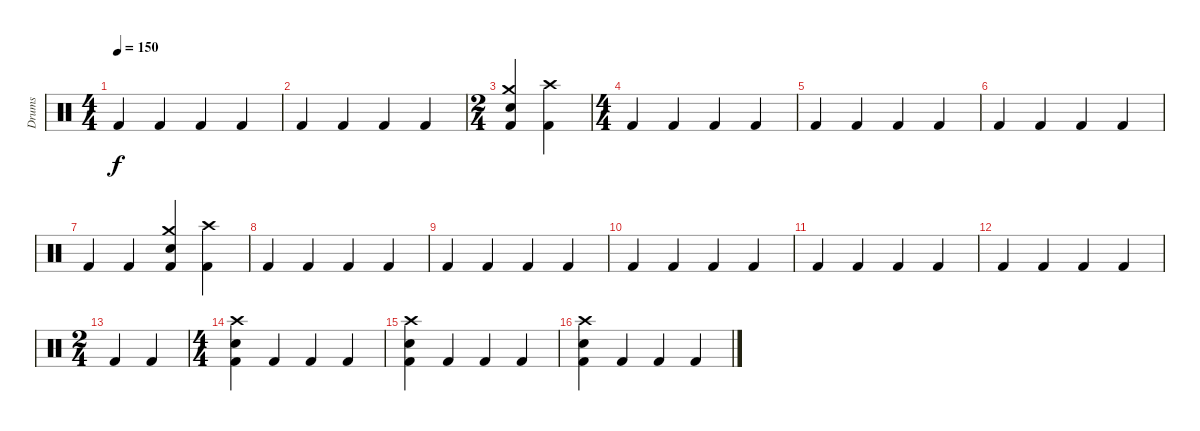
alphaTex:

\track ("Drums" "Drums") {instrument percussion}
\staff {score}
\articulation defaults
\ts (4 4)
\tempo 150
\clef neutral
\ks c "Kick (hit) 2".4{dy f} "Kick (hit) 2".4 "Kick (hit) 2".4 "Kick (hit) 2".4
|
"Kick (hit) 2".4 "Kick (hit) 2".4 "Kick (hit) 2".4 "Kick (hit) 2".4 |
\ts (2 4)
("Crash medium (hit)" "Kick (hit) 2" "Snare (hit) 2").4 ("Kick (hit) 2" "Crash high (hit)").4 |
\ts (4 4)
"Kick (hit) 2".4 "Kick (hit) 2".4 "Kick (hit) 2".4 "Kick (hit) 2".4 |
"Kick (hit) 2".4 "Kick (hit) 2".4 "Kick (hit) 2".4 "Kick (hit) 2".4 |
"Kick (hit) 2".4 "Kick (hit) 2".4 "Kick (hit) 2".4 "Kick (hit) 2".4 |
"Kick (hit) 2".4 "Kick (hit) 2".4 ("Crash medium (hit)" "Snare (hit) 2" "Kick (hit) 2").4 ("Crash high (hit)" "Kick (hit) 2").4 |
"Kick (hit) 2".4 "Kick (hit) 2".4 "Kick (hit) 2".4 "Kick (hit) 2".4 |
"Kick (hit) 2".4 "Kick (hit) 2".4 "Kick (hit) 2".4 "Kick (hit) 2".4 |
"Kick (hit) 2".4 "Kick (hit) 2".4 "Kick (hit) 2".4 "Kick (hit) 2".4 |
"Kick (hit) 2".4 "Kick (hit) 2".4 "Kick (hit) 2".4 "Kick (hit) 2".4 |
"Kick (hit) 2".4 "Kick (hit) 2".4 "Kick (hit) 2".4 "Kick (hit) 2".4 |
\ts (2 4)
"Kick (hit) 2".4 "Kick (hit) 2".4 |
\ts (4 4)
("Kick (hit) 2" "Crash high (hit)" "Snare (hit) 2").4 "Kick (hit) 2".4 "Kick (hit) 2".4 "Kick (hit) 2".4 |
("Kick (hit) 2" "Crash high (hit)" "Snare (hit) 2").4 "Kick (hit) 2".4 "Kick (hit) 2".4 "Kick (hit) 2".4 |
("Crash high (hit)" "Kick (hit) 2" "Snare (hit) 2").4 "Kick (hit) 2".4 "Kick (hit) 2".4 "Kick (hit) 2".4
